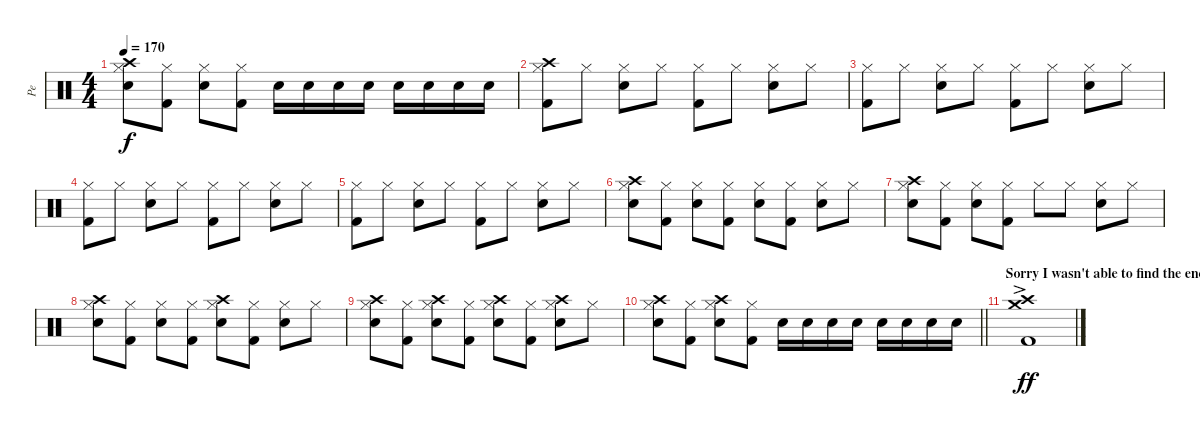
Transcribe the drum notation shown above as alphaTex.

\track ("Pe" "Pe") {instrument percussion}
\staff {score}
\articulation defaults
\ts (4 4)
\tempo 170
\clef neutral
\ks c
("Crash high (hit)" "Hi-Hat (closed)" "Snare (hit) 2").8{dy f} ("Hi-Hat (closed)" "Kick (hit) 2").8 ("Hi-Hat (closed)" "Snare (hit) 2").8 ("Hi-Hat (closed)" "Kick (hit) 2").8 "Snare (hit) 2".16 "Snare (hit) 2".16 "Snare (hit) 2".16 "Snare (hit) 2".16 "Snare (hit) 2".16 "Snare (hit) 2".16 "Snare (hit) 2".16 "Snare (hit) 2".16 |
("Crash high (hit)" "Hi-Hat (closed)" "Kick (hit) 2").8 "Hi-Hat (closed)".8 ("Hi-Hat (closed)" "Snare (hit) 2").8 "Hi-Hat (closed)".8 ("Hi-Hat (closed)" "Kick (hit) 2").8 "Hi-Hat (closed)".8 ("Hi-Hat (closed)" "Snare (hit) 2").8 "Hi-Hat (closed)".8 |
("Hi-Hat (closed)" "Kick (hit) 2").8 "Hi-Hat (closed)".8 ("Hi-Hat (closed)" "Snare (hit) 2").8 "Hi-Hat (closed)".8 ("Hi-Hat (closed)" "Kick (hit) 2").8 "Hi-Hat (closed)".8 ("Hi-Hat (closed)" "Snare (hit) 2").8 "Hi-Hat (closed)".8 |
("Hi-Hat (closed)" "Kick (hit) 2").8 "Hi-Hat (closed)".8 ("Hi-Hat (closed)" "Snare (hit) 2").8 "Hi-Hat (closed)".8 ("Hi-Hat (closed)" "Kick (hit) 2").8 "Hi-Hat (closed)".8 ("Hi-Hat (closed)" "Snare (hit) 2").8 "Hi-Hat (closed)".8 |
("Hi-Hat (closed)" "Kick (hit) 2").8 "Hi-Hat (closed)".8 ("Hi-Hat (closed)" "Snare (hit) 2").8 "Hi-Hat (closed)".8 ("Hi-Hat (closed)" "Kick (hit) 2").8 "Hi-Hat (closed)".8 ("Hi-Hat (closed)" "Snare (hit) 2").8 "Hi-Hat (closed)".8 |
("Crash high (hit)" "Hi-Hat (closed)" "Snare (hit) 2").8 ("Hi-Hat (closed)" "Kick (hit) 2").8 ("Hi-Hat (closed)" "Snare (hit) 2").8 ("Hi-Hat (closed)" "Kick (hit) 2").8 ("Hi-Hat (closed)" "Snare (hit) 2").8 ("Hi-Hat (closed)" "Kick (hit) 2").8 ("Hi-Hat (closed)" "Snare (hit) 2").8 "Hi-Hat (closed)".8 |
("Crash high (hit)" "Hi-Hat (closed)" "Snare (hit) 2").8 ("Hi-Hat (closed)" "Kick (hit) 2").8 ("Hi-Hat (closed)" "Snare (hit) 2").8 ("Hi-Hat (closed)" "Kick (hit) 2").8 "Hi-Hat (closed)".8 "Hi-Hat (closed)".8 ("Hi-Hat (closed)" "Snare (hit) 2").8 "Hi-Hat (closed)".8 |
("Crash high (hit)" "Hi-Hat (closed)" "Snare (hit) 2").8 ("Hi-Hat (closed)" "Kick (hit) 2").8 ("Hi-Hat (closed)" "Snare (hit) 2").8 ("Hi-Hat (closed)" "Kick (hit) 2").8 ("Crash high (hit)" "Hi-Hat (closed)" "Snare (hit) 2").8 ("Hi-Hat (closed)" "Kick (hit) 2").8 ("Hi-Hat (closed)" "Snare (hit) 2").8 "Hi-Hat (closed)".8 |
("Crash high (hit)" "Hi-Hat (closed)" "Snare (hit) 2").8 ("Hi-Hat (closed)" "Kick (hit) 2").8 ("Crash high (hit)" "Hi-Hat (closed)" "Snare (hit) 2").8 ("Hi-Hat (closed)" "Kick (hit) 2").8 ("Crash high (hit)" "Hi-Hat (closed)" "Snare (hit) 2").8 ("Hi-Hat (closed)" "Kick (hit) 2").8 ("Crash high (hit)" "Hi-Hat (closed)" "Snare (hit) 2").8 "Hi-Hat (closed)".8 |
\barLineRight lightlight
("Crash high (hit)" "Hi-Hat (closed)" "Snare (hit) 2").8 ("Hi-Hat (closed)" "Kick (hit) 2").8 ("Crash high (hit)" "Hi-Hat (closed)" "Snare (hit) 2").8 ("Hi-Hat (closed)" "Kick (hit) 2").8 "Snare (hit) 2".16 "Snare (hit) 2".16 "Snare (hit) 2".16 "Snare (hit) 2".16 "Snare (hit) 2".16 "Snare (hit) 2".16 "Snare (hit) 2".16 "Snare (hit) 2".16 |
\section ("" "Sorry I wasn't able to find the end Solo")
("Crash high (hit)"{ac} "Crash medium (hit)"{ac} "Kick (hit) 2"{ac}).1{dy ff}
